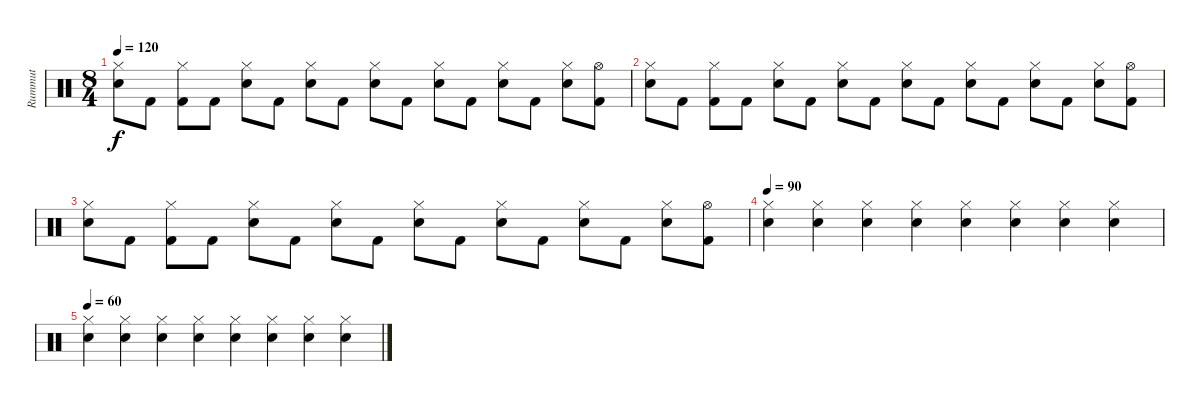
\track ("Rummut" "Rummut") {instrument percussion}
\staff {score}
\articulation defaults
\ts (8 4)
\tempo 120
\clef neutral
\ks c
("Hi-Hat (closed)" "Snare (hit) 2").8{dy f} "Kick (hit) 2".8 ("Hi-Hat (closed)" "Kick (hit) 2").8 "Kick (hit) 2".8 ("Hi-Hat (closed)" "Snare (hit) 2").8 "Kick (hit) 2".8 ("Hi-Hat (closed)" "Snare (hit) 2").8 "Kick (hit) 2".8 ("Hi-Hat (closed)" "Snare (hit) 2").8 "Kick (hit) 2".8 ("Hi-Hat (closed)" "Snare (hit) 2").8 "Kick (hit) 2".8 ("Hi-Hat (closed)" "Snare (hit) 2").8 "Kick (hit) 2".8 ("Hi-Hat (closed)" "Snare (hit) 2").8 ("Hi-Hat (open)" "Kick (hit) 2").8 |
("Hi-Hat (closed)" "Snare (hit) 2").8 "Kick (hit) 2".8 ("Hi-Hat (closed)" "Kick (hit) 2").8 "Kick (hit) 2".8 ("Hi-Hat (closed)" "Snare (hit) 2").8 "Kick (hit) 2".8 ("Hi-Hat (closed)" "Snare (hit) 2").8 "Kick (hit) 2".8 ("Hi-Hat (closed)" "Snare (hit) 2").8 "Kick (hit) 2".8 ("Hi-Hat (closed)" "Snare (hit) 2").8 "Kick (hit) 2".8 ("Hi-Hat (closed)" "Snare (hit) 2").8 "Kick (hit) 2".8 ("Hi-Hat (closed)" "Snare (hit) 2").8 ("Hi-Hat (open)" "Kick (hit) 2").8 |
("Hi-Hat (closed)" "Snare (hit) 2").8 "Kick (hit) 2".8 ("Hi-Hat (closed)" "Kick (hit) 2").8 "Kick (hit) 2".8 ("Hi-Hat (closed)" "Snare (hit) 2").8 "Kick (hit) 2".8 ("Hi-Hat (closed)" "Snare (hit) 2").8 "Kick (hit) 2".8 ("Hi-Hat (closed)" "Snare (hit) 2").8 "Kick (hit) 2".8 ("Hi-Hat (closed)" "Snare (hit) 2").8 "Kick (hit) 2".8 ("Hi-Hat (closed)" "Snare (hit) 2").8 "Kick (hit) 2".8 ("Hi-Hat (closed)" "Snare (hit) 2").8 ("Hi-Hat (open)" "Kick (hit) 2").8 |
\tempo 90
("Hi-Hat (closed)" "Snare (hit) 2").4 ("Hi-Hat (closed)" "Snare (hit) 2").4 ("Hi-Hat (closed)" "Snare (hit) 2").4 ("Hi-Hat (closed)" "Snare (hit) 2").4 ("Hi-Hat (closed)" "Snare (hit) 2").4 ("Hi-Hat (closed)" "Snare (hit) 2").4 ("Hi-Hat (closed)" "Snare (hit) 2").4 ("Hi-Hat (closed)" "Snare (hit) 2").4 |
\tempo 60
("Hi-Hat (closed)" "Snare (hit) 2").4 ("Hi-Hat (closed)" "Snare (hit) 2").4 ("Hi-Hat (closed)" "Snare (hit) 2").4 ("Hi-Hat (closed)" "Snare (hit) 2").4 ("Hi-Hat (closed)" "Snare (hit) 2").4 ("Hi-Hat (closed)" "Snare (hit) 2").4 ("Hi-Hat (closed)" "Snare (hit) 2").4 ("Hi-Hat (closed)" "Snare (hit) 2").4
